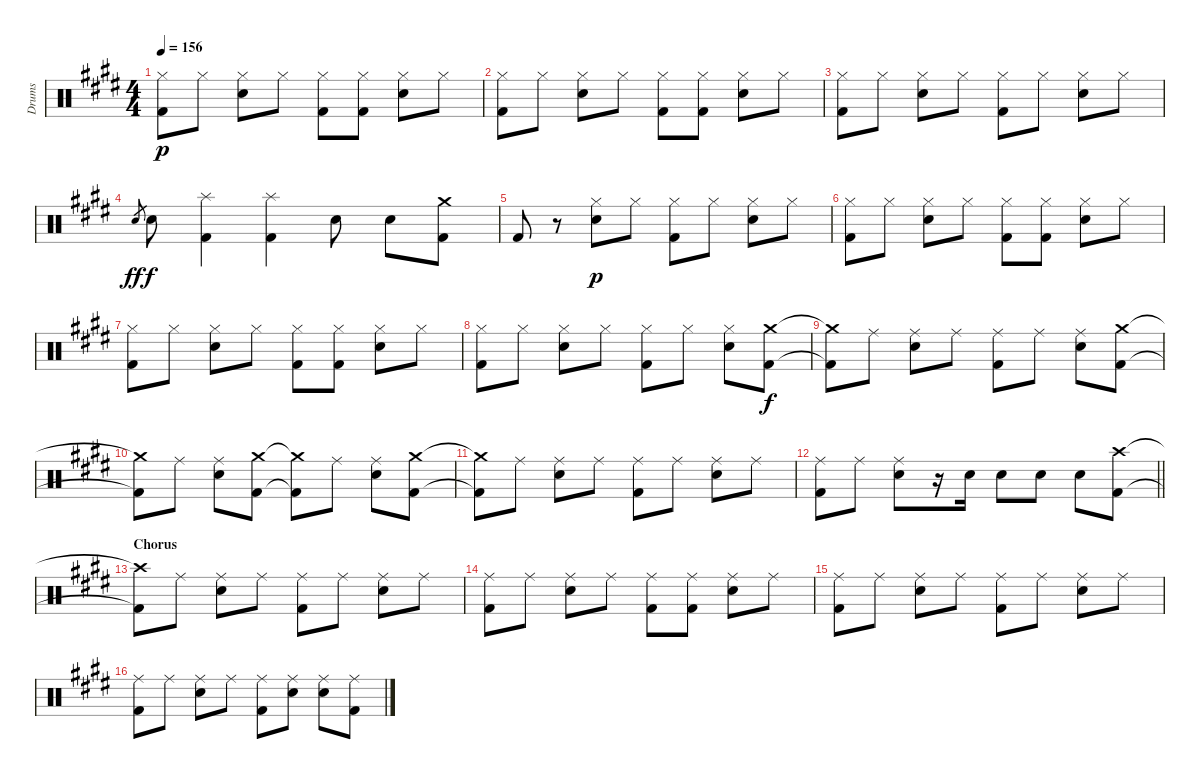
\track ("Drums" "Drums") {instrument percussion}
\staff {score}
\articulation defaults
\ts (4 4)
\tempo 156
\clef neutral
\ks c#minor
("Hi-Hat (closed)" "Kick (hit) 2").8{dy p} "Hi-Hat (closed)".8 ("Hi-Hat (closed)" "Electric Snare (hit)").8 "Hi-Hat (closed)".8 ("Hi-Hat (closed)" "Kick (hit) 2").8 ("Hi-Hat (closed)" "Kick (hit) 2").8 ("Hi-Hat (closed)" "Electric Snare (hit)").8 "Hi-Hat (closed)".8 |
\ks e
("Hi-Hat (closed)" "Kick (hit) 2").8 "Hi-Hat (closed)".8 ("Hi-Hat (closed)" "Electric Snare (hit)").8 "Hi-Hat (closed)".8 ("Hi-Hat (closed)" "Kick (hit) 2").8 ("Hi-Hat (closed)" "Kick (hit) 2").8 ("Hi-Hat (closed)" "Electric Snare (hit)").8 "Hi-Hat (closed)".8 |
\ks c#minor
("Hi-Hat (closed)" "Kick (hit) 2").8 "Hi-Hat (closed)".8 ("Hi-Hat (closed)" "Electric Snare (hit)").8 "Hi-Hat (closed)".8 ("Hi-Hat (closed)" "Kick (hit) 2").8 "Hi-Hat (closed)".8 ("Hi-Hat (closed)" "Electric Snare (hit)").8 "Hi-Hat (closed)".8 |
"Electric Snare (hit)".8{gr dy ff} "Electric Snare (hit)".8{dy f} ("Splash (hit)" "Kick (hit) 2").4 ("Splash (hit)" "Kick (hit) 2").4 "Electric Snare (hit)".8 "Electric Snare (hit)".8 ("Crash medium (hit)" "Kick (hit) 2").8 |
"Kick (hit) 2".8 r.8 ("Hi-Hat (closed)" "Electric Snare (hit)").8{dy p} "Hi-Hat (closed)".8 ("Hi-Hat (closed)" "Kick (hit) 2").8 "Hi-Hat (closed)".8 ("Hi-Hat (closed)" "Electric Snare (hit)").8 "Hi-Hat (closed)".8 |
("Hi-Hat (closed)" "Kick (hit) 2").8 "Hi-Hat (closed)".8 ("Hi-Hat (closed)" "Electric Snare (hit)").8 "Hi-Hat (closed)".8 ("Hi-Hat (closed)" "Kick (hit) 2").8 ("Hi-Hat (closed)" "Kick (hit) 2").8 ("Hi-Hat (closed)" "Electric Snare (hit)").8 "Hi-Hat (closed)".8 |
("Hi-Hat (closed)" "Kick (hit) 2").8 "Hi-Hat (closed)".8 ("Hi-Hat (closed)" "Electric Snare (hit)").8 "Hi-Hat (closed)".8 ("Hi-Hat (closed)" "Kick (hit) 2").8 ("Hi-Hat (closed)" "Kick (hit) 2").8 ("Hi-Hat (closed)" "Electric Snare (hit)").8 "Hi-Hat (closed)".8 |
("Hi-Hat (closed)" "Kick (hit) 2").8 "Hi-Hat (closed)".8 ("Hi-Hat (closed)" "Electric Snare (hit)").8 "Hi-Hat (closed)".8 ("Hi-Hat (closed)" "Kick (hit) 2").8 "Hi-Hat (closed)".8 ("Hi-Hat (closed)" "Electric Snare (hit)").8 ("Crash medium (hit)" "Kick (hit) 2").8{dy f} |
("Crash medium (hit)"{t} "Kick (hit) 2"{t}).8 "Ride (middle)".8 ("Ride (middle)" "Electric Snare (hit)").8 "Ride (middle)".8 ("Ride (middle)" "Kick (hit) 2").8 "Ride (middle)".8 ("Ride (middle)" "Electric Snare (hit)").8 ("Crash medium (hit)" "Kick (hit) 2").8 |
("Crash medium (hit)"{t} "Kick (hit) 2"{t}).8 "Ride (middle)".8 ("Ride (middle)" "Electric Snare (hit)").8 ("Crash medium (hit)" "Kick (hit) 2").8 ("Crash medium (hit)"{t} "Kick (hit) 2"{t}).8 "Ride (middle)".8 ("Ride (middle)" "Electric Snare (hit)").8 ("Crash medium (hit)" "Kick (hit) 2").8 |
\ks e
("Crash medium (hit)"{t} "Kick (hit) 2"{t}).8 "Ride (middle)".8 ("Ride (middle)" "Electric Snare (hit)").8 "Ride (middle)".8 ("Ride (middle)" "Kick (hit) 2").8 "Ride (middle)".8 ("Ride (middle)" "Electric Snare (hit)").8 "Ride (middle)".8 |
\barLineRight lightlight
\ks c#minor
("Ride (middle)" "Kick (hit) 2").8 "Ride (middle)".8 ("Ride (middle)" "Electric Snare (hit)").8 r.16 "Electric Snare (hit)".16 "Electric Snare (hit)".8 "Electric Snare (hit)".8 "Electric Snare (hit)".8 ("Crash high (hit)" "Kick (hit) 2").8 |
\section ("" "Chorus")
("Crash high (hit)"{t} "Kick (hit) 2"{t}).8 "Ride (middle)".8 ("Ride (middle)" "Electric Snare (hit)").8 "Ride (middle)".8 ("Ride (middle)" "Kick (hit) 2").8 "Ride (middle)".8 ("Ride (middle)" "Electric Snare (hit)").8 "Ride (middle)".8 |
\ks e
("Ride (middle)" "Kick (hit) 2").8 "Ride (middle)".8 ("Ride (middle)" "Electric Snare (hit)").8 "Ride (middle)".8 ("Ride (middle)" "Kick (hit) 2").8 ("Ride (middle)" "Kick (hit) 2").8 ("Ride (middle)" "Electric Snare (hit)").8 "Ride (middle)".8 |
\ks c#minor
("Ride (middle)" "Kick (hit) 2").8 "Ride (middle)".8 ("Ride (middle)" "Electric Snare (hit)").8 "Ride (middle)".8 ("Ride (middle)" "Kick (hit) 2").8 "Ride (middle)".8 ("Ride (middle)" "Electric Snare (hit)").8 "Ride (middle)".8 |
("Ride (middle)" "Kick (hit) 2").8 "Ride (middle)".8 ("Ride (middle)" "Electric Snare (hit)").8 "Ride (middle)".8 ("Ride (middle)" "Kick (hit) 2").8 ("Ride (middle)" "Electric Snare (hit)").8 ("Ride (middle)" "Electric Snare (hit)").8 ("Ride (middle)" "Kick (hit) 2").8
